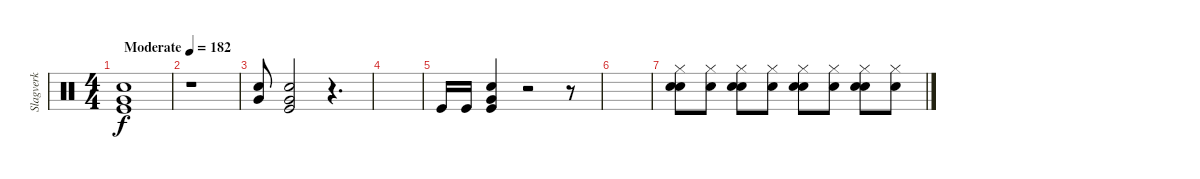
\track ("Slagverk" "Slagverk") {instrument percussion}
\staff {score}
\articulation defaults
\ts (4 4)
\tempo (182 "Moderate")
\clef neutral
\ks c
("Very Low Tom (hit)" "Kick (hit)" "Snare (hit) 2").1{dy f} |
r.1 |
("Snare (hit) 2" "Very Low Tom (hit)").8 ("Kick (hit)" "Snare (hit) 2" "Very Low Tom (hit)").2 r.4{d} |
|
"Kick (hit)".16 "Kick (hit)".16 ("Very Low Tom (hit)" "Kick (hit)" "Snare (hit) 2").4 r.2 r.8 |
|
("Snare (hit) 2" "Hi-Hat (closed)" "Snare (hit) 2").8 ("Hi-Hat (closed)" "Snare (hit) 2").8 ("Snare (hit) 2" "Hi-Hat (closed)" "Snare (hit) 2").8 ("Hi-Hat (closed)" "Snare (hit) 2").8 ("Snare (hit) 2" "Hi-Hat (closed)" "Snare (hit) 2").8 ("Hi-Hat (closed)" "Snare (hit) 2").8 ("Snare (hit) 2" "Hi-Hat (closed)" "Snare (hit) 2").8 ("Hi-Hat (closed)" "Snare (hit) 2").8
